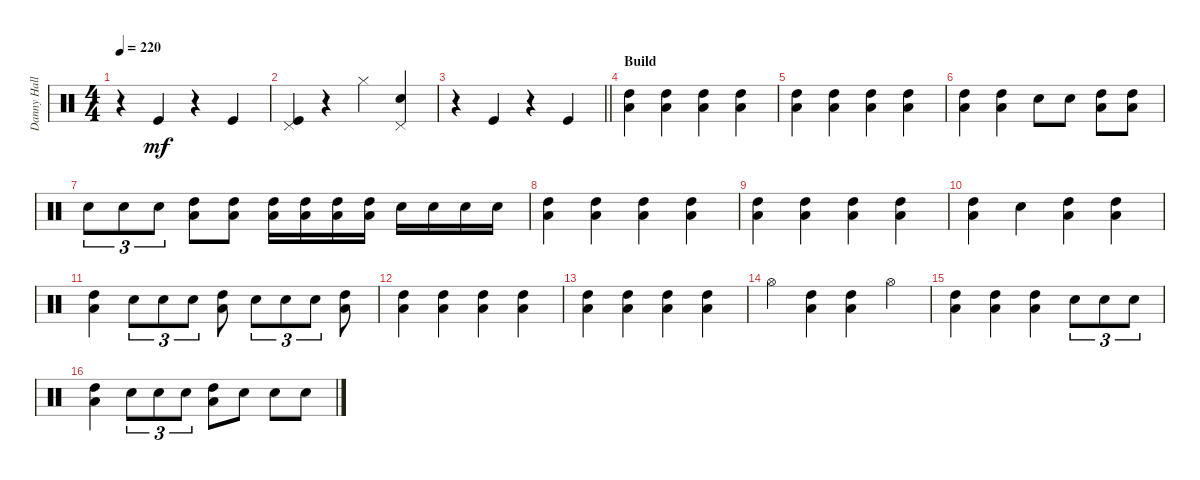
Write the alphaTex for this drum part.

\track ("Danny Hall" "Danny Hall") {instrument percussion}
\staff {score}
\articulation defaults
\ts (4 4)
\tempo 220
\clef neutral
\ks c
r.4{dy mf} "Kick (hit)".4 r.4 "Kick (hit)".4 |
("Pedal Hi-Hat (hit)" "Kick (hit)").4 r.4 "Hi-Hat (closed)".4 ("Pedal Hi-Hat (hit)" "Snare (hit) 2").4 |
\barLineRight lightlight
r.4 "Kick (hit)".4 r.4 "Kick (hit)".4 |
\section ("" "Build")
("High Tom (hit)" "Low Tom (hit)").4 ("High Tom (hit)" "Low Tom (hit)").4 ("High Tom (hit)" "Low Tom (hit)").4 ("High Tom (hit)" "Low Tom (hit)").4 |
("High Tom (hit)" "Low Tom (hit)").4 ("High Tom (hit)" "Low Tom (hit)").4 ("High Tom (hit)" "Low Tom (hit)").4 ("High Tom (hit)" "Low Tom (hit)").4 |
("High Tom (hit)" "Low Tom (hit)").4 ("High Tom (hit)" "Low Tom (hit)").4 "Snare (hit) 2".8 "Snare (hit) 2".8 ("High Tom (hit)" "Low Tom (hit)").8 ("High Tom (hit)" "Low Tom (hit)").8 |
"Snare (hit) 2".8{tu (3 2)} "Snare (hit) 2".8{tu (3 2)} "Snare (hit) 2".8{tu (3 2)} ("High Tom (hit)" "Low Tom (hit)").8 ("High Tom (hit)" "Low Tom (hit)").8 ("High Tom (hit)" "Low Tom (hit)").16 ("High Tom (hit)" "Low Tom (hit)").16 ("High Tom (hit)" "Low Tom (hit)").16 ("High Tom (hit)" "Low Tom (hit)").16 "Snare (hit) 2".16 "Snare (hit) 2".16 "Snare (hit) 2".16 "Snare (hit) 2".16 |
("High Tom (hit)" "Low Tom (hit)").4 ("High Tom (hit)" "Low Tom (hit)").4 ("High Tom (hit)" "Low Tom (hit)").4 ("High Tom (hit)" "Low Tom (hit)").4 |
("High Tom (hit)" "Low Tom (hit)").4 ("High Tom (hit)" "Low Tom (hit)").4 ("High Tom (hit)" "Low Tom (hit)").4 ("High Tom (hit)" "Low Tom (hit)").4 |
("High Tom (hit)" "Low Tom (hit)").4 "Snare (hit) 2".4 ("High Tom (hit)" "Low Tom (hit)").4 ("High Tom (hit)" "Low Tom (hit)").4 |
("High Tom (hit)" "Low Tom (hit)").4 "Snare (hit) 2".8{tu (3 2)} "Snare (hit) 2".8{tu (3 2)} "Snare (hit) 2".8{tu (3 2)} ("High Tom (hit)" "Low Tom (hit)").8 "Snare (hit) 2".8{tu (3 2)} "Snare (hit) 2".8{tu (3 2)} "Snare (hit) 2".8{tu (3 2)} ("High Tom (hit)" "Low Tom (hit)").8 |
("High Tom (hit)" "Low Tom (hit)").4 ("High Tom (hit)" "Low Tom (hit)").4 ("High Tom (hit)" "Low Tom (hit)").4 ("High Tom (hit)" "Low Tom (hit)").4 |
("High Tom (hit)" "Low Tom (hit)").4 ("High Tom (hit)" "Low Tom (hit)").4 ("High Tom (hit)" "Low Tom (hit)").4 ("High Tom (hit)" "Low Tom (hit)").4 |
"Hi-Hat (open)".4 ("High Tom (hit)" "Low Tom (hit)").4 ("High Tom (hit)" "Low Tom (hit)").4 "Hi-Hat (open)".4 |
("High Tom (hit)" "Low Tom (hit)").4 ("High Tom (hit)" "Low Tom (hit)").4 ("High Tom (hit)" "Low Tom (hit)").4 "Snare (hit) 2".8{tu (3 2)} "Snare (hit) 2".8{tu (3 2)} "Snare (hit) 2".8{tu (3 2)} |
("High Tom (hit)" "Low Tom (hit)").4 "Snare (hit) 2".8{tu (3 2)} "Snare (hit) 2".8{tu (3 2)} "Snare (hit) 2".8{tu (3 2)} ("High Tom (hit)" "Low Tom (hit)").8 "Snare (hit) 2".8 "Snare (hit) 2".8 "Snare (hit) 2".8
